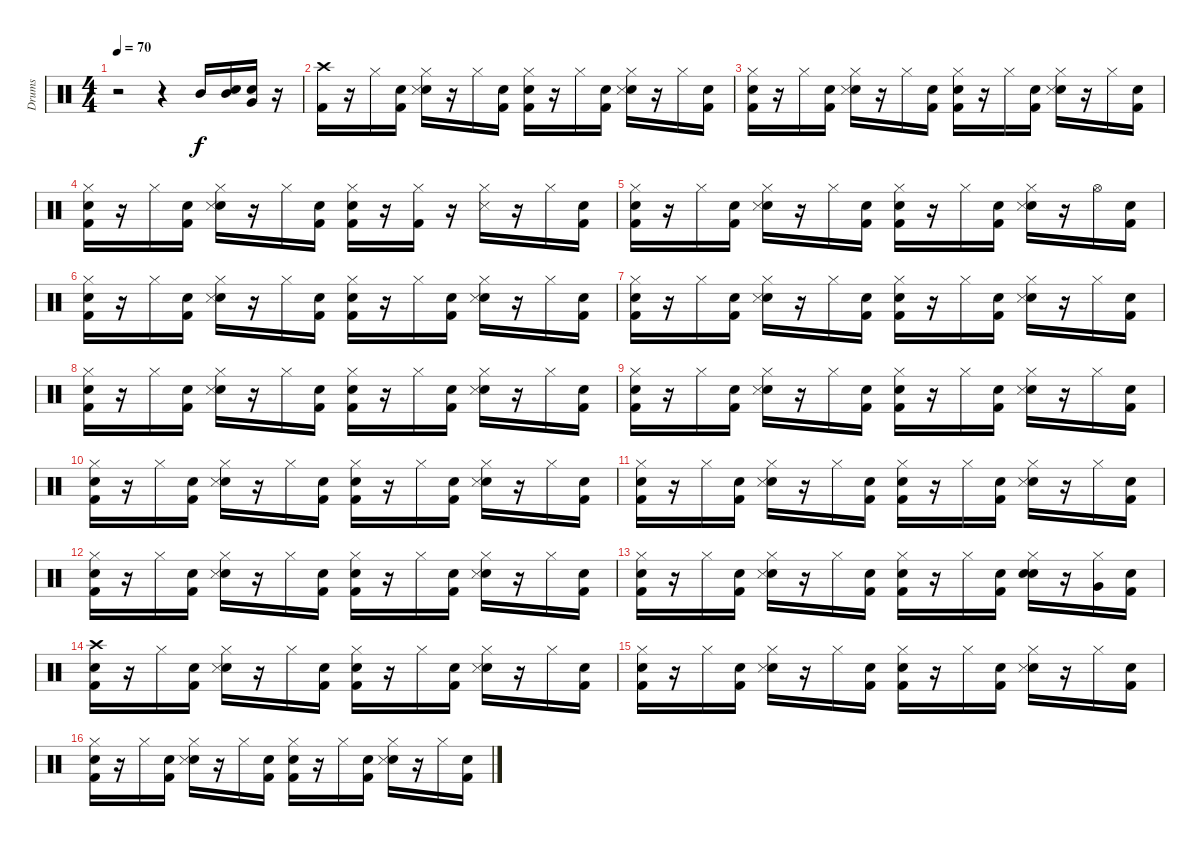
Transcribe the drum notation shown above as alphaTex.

\track ("Drums" "Drums") {instrument percussion}
\staff {score}
\articulation defaults
\ts (4 4)
\tempo 70
\clef neutral
\ks c
r.2{dy f} r.4 "Mid Tom (hit)".16 ("Snare (hit)" "Mid Tom (hit)").16 ("Snare (hit)" "Very Low Tom (hit)").16 r.16 |
("Kick (hit) 2" "Crash high (hit)").16 r.16 "Hi-Hat (closed)".16 ("Snare (hit)" "Kick (hit) 2").16 ("Snare (hit)" "Snare (side stick) 3" "Hi-Hat (closed)").16 r.16 "Hi-Hat (closed)".16 ("Snare (hit)" "Kick (hit) 2").16 ("Snare (hit)" "Kick (hit) 2" "Hi-Hat (closed)").16 r.16 "Hi-Hat (closed)".16 ("Snare (hit)" "Kick (hit) 2").16 ("Snare (hit)" "Snare (side stick) 3" "Hi-Hat (closed)").16 r.16 "Hi-Hat (closed)".16 ("Snare (hit)" "Kick (hit) 2").16 |
("Snare (hit)" "Kick (hit) 2" "Hi-Hat (closed)").16 r.16 "Hi-Hat (closed)".16 ("Snare (hit)" "Kick (hit) 2").16 ("Snare (hit)" "Snare (side stick) 3" "Hi-Hat (closed)").16 r.16 "Hi-Hat (closed)".16 ("Snare (hit)" "Kick (hit) 2").16 ("Snare (hit)" "Kick (hit) 2" "Hi-Hat (closed)").16 r.16 "Hi-Hat (closed)".16 ("Snare (hit)" "Kick (hit) 2").16 ("Snare (hit)" "Snare (side stick) 3" "Hi-Hat (closed)").16 r.16 "Hi-Hat (closed)".16 ("Snare (hit)" "Kick (hit) 2").16 |
("Snare (hit)" "Kick (hit) 2" "Hi-Hat (closed)").16 r.16 "Hi-Hat (closed)".16 ("Snare (hit)" "Kick (hit) 2").16 ("Snare (hit)" "Snare (side stick) 3" "Hi-Hat (closed)").16 r.16 "Hi-Hat (closed)".16 ("Snare (hit)" "Kick (hit) 2").16 ("Snare (hit)" "Kick (hit) 2" "Hi-Hat (closed)").16 r.16 ("Kick (hit) 2" "Hi-Hat (closed)").16 r.16 ("Snare (side stick) 3" "Hi-Hat (closed)").16 r.16 "Hi-Hat (closed)".16 ("Snare (hit)" "Kick (hit) 2").16 |
("Snare (hit)" "Kick (hit) 2" "Hi-Hat (closed)").16 r.16 "Hi-Hat (closed)".16 ("Snare (hit)" "Kick (hit) 2").16 ("Snare (hit)" "Snare (side stick) 3" "Hi-Hat (closed)").16 r.16 "Hi-Hat (closed)".16 ("Snare (hit)" "Kick (hit) 2").16 ("Snare (hit)" "Kick (hit) 2" "Hi-Hat (closed)").16 r.16 "Hi-Hat (closed)".16 ("Snare (hit)" "Kick (hit) 2").16 ("Snare (hit)" "Snare (side stick) 3" "Hi-Hat (closed)").16 r.16 "Hi-Hat (open)".16 ("Snare (hit)" "Kick (hit) 2").16 |
("Snare (hit)" "Kick (hit) 2" "Hi-Hat (closed)").16 r.16 "Hi-Hat (closed)".16 ("Snare (hit)" "Kick (hit) 2").16 ("Snare (hit)" "Snare (side stick) 3" "Hi-Hat (closed)").16 r.16 "Hi-Hat (closed)".16 ("Snare (hit)" "Kick (hit) 2").16 ("Snare (hit)" "Kick (hit) 2" "Hi-Hat (closed)").16 r.16 "Hi-Hat (closed)".16 ("Snare (hit)" "Kick (hit) 2").16 ("Snare (hit)" "Snare (side stick) 3" "Hi-Hat (closed)").16 r.16 "Hi-Hat (closed)".16 ("Snare (hit)" "Kick (hit) 2").16 |
("Snare (hit)" "Kick (hit) 2" "Hi-Hat (closed)").16 r.16 "Hi-Hat (closed)".16 ("Snare (hit)" "Kick (hit) 2").16 ("Snare (hit)" "Snare (side stick) 3" "Hi-Hat (closed)").16 r.16 "Hi-Hat (closed)".16 ("Snare (hit)" "Kick (hit) 2").16 ("Snare (hit)" "Kick (hit) 2" "Hi-Hat (closed)").16 r.16 "Hi-Hat (closed)".16 ("Snare (hit)" "Kick (hit) 2").16 ("Snare (hit)" "Snare (side stick) 3" "Hi-Hat (closed)").16 r.16 "Hi-Hat (closed)".16 ("Snare (hit)" "Kick (hit) 2").16 |
("Snare (hit)" "Kick (hit) 2" "Hi-Hat (closed)").16 r.16 "Hi-Hat (closed)".16 ("Snare (hit)" "Kick (hit) 2").16 ("Snare (hit)" "Snare (side stick) 3" "Hi-Hat (closed)").16 r.16 "Hi-Hat (closed)".16 ("Snare (hit)" "Kick (hit) 2").16 ("Snare (hit)" "Kick (hit) 2" "Hi-Hat (closed)").16 r.16 "Hi-Hat (closed)".16 ("Snare (hit)" "Kick (hit) 2").16 ("Snare (hit)" "Snare (side stick) 3" "Hi-Hat (closed)").16 r.16 "Hi-Hat (closed)".16 ("Snare (hit)" "Kick (hit) 2").16 |
("Snare (hit)" "Kick (hit) 2" "Hi-Hat (closed)").16 r.16 "Hi-Hat (closed)".16 ("Snare (hit)" "Kick (hit) 2").16 ("Snare (hit)" "Snare (side stick) 3" "Hi-Hat (closed)").16 r.16 "Hi-Hat (closed)".16 ("Snare (hit)" "Kick (hit) 2").16 ("Snare (hit)" "Kick (hit) 2" "Hi-Hat (closed)").16 r.16 "Hi-Hat (closed)".16 ("Snare (hit)" "Kick (hit) 2").16 ("Snare (hit)" "Snare (side stick) 3" "Hi-Hat (closed)").16 r.16 "Hi-Hat (closed)".16 ("Snare (hit)" "Kick (hit) 2").16 |
("Snare (hit)" "Kick (hit) 2" "Hi-Hat (closed)").16 r.16 "Hi-Hat (closed)".16 ("Snare (hit)" "Kick (hit) 2").16 ("Snare (hit)" "Snare (side stick) 3" "Hi-Hat (closed)").16 r.16 "Hi-Hat (closed)".16 ("Snare (hit)" "Kick (hit) 2").16 ("Snare (hit)" "Kick (hit) 2" "Hi-Hat (closed)").16 r.16 "Hi-Hat (closed)".16 ("Snare (hit)" "Kick (hit) 2").16 ("Snare (hit)" "Snare (side stick) 3" "Hi-Hat (closed)").16 r.16 "Hi-Hat (closed)".16 ("Snare (hit)" "Kick (hit) 2").16 |
("Snare (hit)" "Kick (hit) 2" "Hi-Hat (closed)").16 r.16 "Hi-Hat (closed)".16 ("Snare (hit)" "Kick (hit) 2").16 ("Snare (hit)" "Snare (side stick) 3" "Hi-Hat (closed)").16 r.16 "Hi-Hat (closed)".16 ("Snare (hit)" "Kick (hit) 2").16 ("Snare (hit)" "Kick (hit) 2" "Hi-Hat (closed)").16 r.16 "Hi-Hat (closed)".16 ("Snare (hit)" "Kick (hit) 2").16 ("Snare (hit)" "Snare (side stick) 3" "Hi-Hat (closed)").16 r.16 "Hi-Hat (closed)".16 ("Snare (hit)" "Kick (hit) 2").16 |
("Snare (hit)" "Kick (hit) 2" "Hi-Hat (closed)").16 r.16 "Hi-Hat (closed)".16 ("Snare (hit)" "Kick (hit) 2").16 ("Snare (hit)" "Snare (side stick) 3" "Hi-Hat (closed)").16 r.16 "Hi-Hat (closed)".16 ("Snare (hit)" "Kick (hit) 2").16 ("Snare (hit)" "Kick (hit) 2" "Hi-Hat (closed)").16 r.16 "Hi-Hat (closed)".16 ("Snare (hit)" "Kick (hit) 2").16 ("Snare (hit)" "Snare (side stick) 3" "Hi-Hat (closed)").16 r.16 "Hi-Hat (closed)".16 ("Snare (hit)" "Kick (hit) 2").16 |
("Snare (hit)" "Kick (hit) 2" "Hi-Hat (closed)").16 r.16 "Hi-Hat (closed)".16 ("Snare (hit)" "Kick (hit) 2").16 ("Snare (hit)" "Snare (side stick) 3" "Hi-Hat (closed)").16 r.16 "Hi-Hat (closed)".16 ("Snare (hit)" "Kick (hit) 2").16 ("Snare (hit)" "Kick (hit) 2" "Hi-Hat (closed)").16 r.16 "Hi-Hat (closed)".16 ("Snare (hit)" "Kick (hit) 2").16 ("Snare (hit)" "Snare (hit) 2" "Hi-Hat (closed)").16 r.16 ("Hi-Hat (closed)" "Very Low Tom (hit)").16 ("Snare (hit)" "Kick (hit) 2").16 |
("Snare (hit)" "Kick (hit) 2" "Crash high (hit)").16 r.16 "Hi-Hat (closed)".16 ("Snare (hit)" "Kick (hit) 2").16 ("Snare (hit)" "Snare (side stick) 3" "Hi-Hat (closed)").16 r.16 "Hi-Hat (closed)".16 ("Snare (hit)" "Kick (hit) 2").16 ("Snare (hit)" "Kick (hit) 2" "Hi-Hat (closed)").16 r.16 "Hi-Hat (closed)".16 ("Snare (hit)" "Kick (hit) 2").16 ("Snare (hit)" "Snare (side stick) 3" "Hi-Hat (closed)").16 r.16 "Hi-Hat (closed)".16 ("Snare (hit)" "Kick (hit) 2").16 |
("Snare (hit)" "Kick (hit) 2" "Hi-Hat (closed)").16 r.16 "Hi-Hat (closed)".16 ("Snare (hit)" "Kick (hit) 2").16 ("Snare (hit)" "Snare (side stick) 3" "Hi-Hat (closed)").16 r.16 "Hi-Hat (closed)".16 ("Snare (hit)" "Kick (hit) 2").16 ("Snare (hit)" "Kick (hit) 2" "Hi-Hat (closed)").16 r.16 "Hi-Hat (closed)".16 ("Snare (hit)" "Kick (hit) 2").16 ("Snare (hit)" "Snare (side stick) 3" "Hi-Hat (closed)").16 r.16 "Hi-Hat (closed)".16 ("Snare (hit)" "Kick (hit) 2").16 |
("Snare (hit)" "Kick (hit) 2" "Hi-Hat (closed)").16 r.16 "Hi-Hat (closed)".16 ("Snare (hit)" "Kick (hit) 2").16 ("Snare (hit)" "Snare (side stick) 3" "Hi-Hat (closed)").16 r.16 "Hi-Hat (closed)".16 ("Snare (hit)" "Kick (hit) 2").16 ("Snare (hit)" "Kick (hit) 2" "Hi-Hat (closed)").16 r.16 "Hi-Hat (closed)".16 ("Snare (hit)" "Kick (hit) 2").16 ("Snare (hit)" "Snare (side stick) 3" "Hi-Hat (closed)").16 r.16 "Hi-Hat (closed)".16 ("Snare (hit)" "Kick (hit) 2").16
